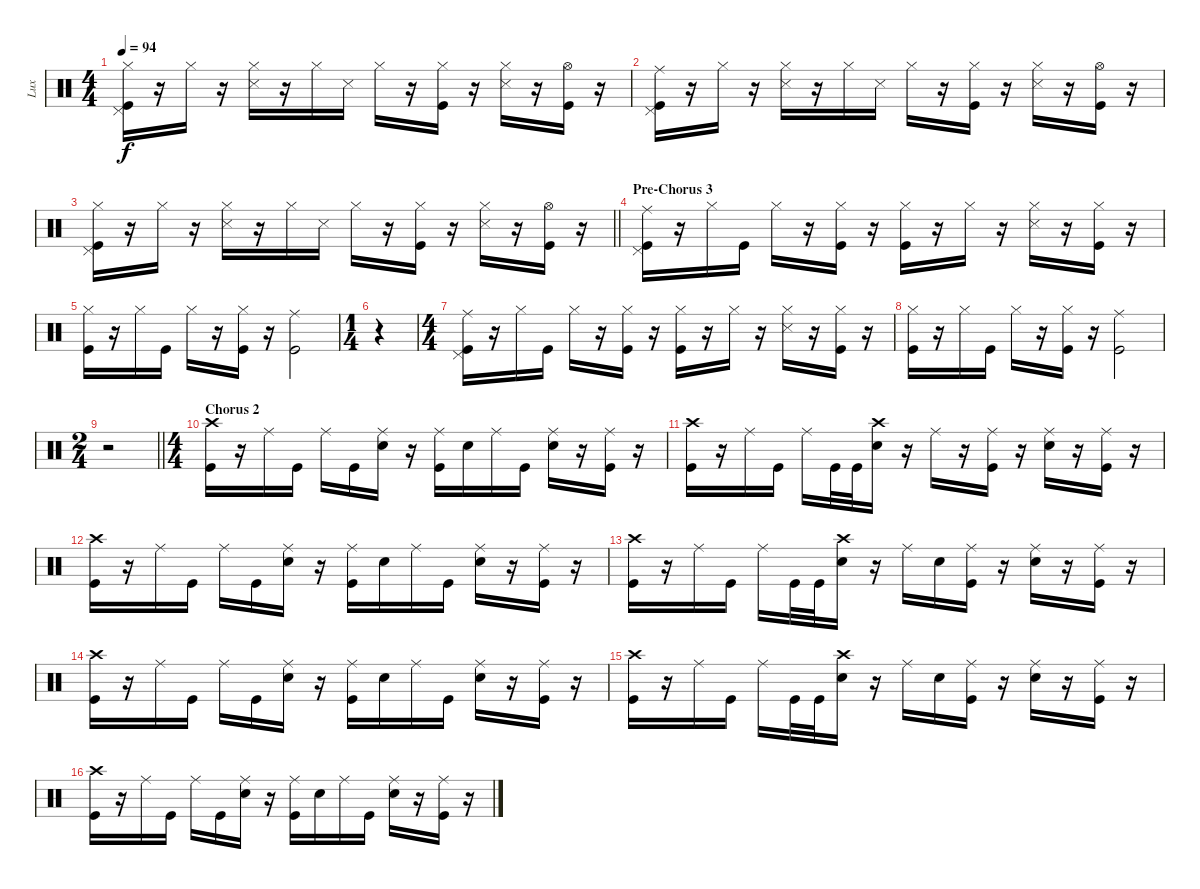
\track ("Lux" "Lux") {instrument percussion}
\staff {score}
\articulation defaults
\ts (4 4)
\tempo 94
\clef neutral
\ks c
("Hi-Hat (closed)" "Pedal Hi-Hat (hit)" "Kick (hit)").16{dy f} r.16 "Hi-Hat (closed)".16 r.16 ("Hi-Hat (closed)" "Snare (side stick) 3").16 r.16 "Hi-Hat (closed)".16 "Snare (side stick) 3".16 "Hi-Hat (closed)".16 r.16 ("Hi-Hat (closed)" "Kick (hit)").16 r.16 ("Hi-Hat (closed)" "Snare (side stick) 3").16 r.16 ("Hi-Hat (open)" "Kick (hit)").16 r.16 |
("Ride (middle)" "Pedal Hi-Hat (hit)" "Kick (hit)").16 r.16 "Hi-Hat (closed)".16 r.16 ("Hi-Hat (closed)" "Snare (side stick) 3").16 r.16 "Hi-Hat (closed)".16 "Snare (side stick) 3".16 "Hi-Hat (closed)".16 r.16 ("Hi-Hat (closed)" "Kick (hit)").16 r.16 ("Hi-Hat (closed)" "Snare (side stick) 3").16 r.16 ("Hi-Hat (open)" "Kick (hit)").16 r.16 |
\barLineRight lightlight
("Hi-Hat (closed)" "Pedal Hi-Hat (hit)" "Kick (hit)").16 r.16 "Hi-Hat (closed)".16 r.16 ("Hi-Hat (closed)" "Snare (side stick) 3").16 r.16 "Hi-Hat (closed)".16 "Snare (side stick) 3".16 "Hi-Hat (closed)".16 r.16 ("Hi-Hat (closed)" "Kick (hit)").16 r.16 ("Hi-Hat (closed)" "Snare (side stick) 3").16 r.16 ("Hi-Hat (open)" "Kick (hit)").16 r.16 |
\section ("" "Pre-Chorus 3")
("Ride (middle)" "Pedal Hi-Hat (hit)" "Kick (hit)").16 r.16 "Hi-Hat (closed)".16 "Kick (hit)".16 "Hi-Hat (closed)".16 r.16 ("Hi-Hat (closed)" "Kick (hit)").16 r.16 ("Hi-Hat (closed)" "Kick (hit)").16 r.16 "Hi-Hat (closed)".16 r.16 ("Hi-Hat (closed)" "Snare (side stick) 3").16 r.16 ("Hi-Hat (closed)" "Kick (hit)").16 r.16 |
("Hi-Hat (closed)" "Kick (hit)").16 r.16 "Hi-Hat (closed)".16 "Kick (hit)".16 "Hi-Hat (closed)".16 r.16 ("Hi-Hat (closed)" "Kick (hit)").16 r.16 ("Ride (middle)" "Kick (hit)").2 |
\ts (1 4)
r.4 |
\ts (4 4)
("Ride (middle)" "Pedal Hi-Hat (hit)" "Kick (hit)").16 r.16 "Hi-Hat (closed)".16 "Kick (hit)".16 "Hi-Hat (closed)".16 r.16 ("Hi-Hat (closed)" "Kick (hit)").16 r.16 ("Hi-Hat (closed)" "Kick (hit)").16 r.16 "Hi-Hat (closed)".16 r.16 ("Hi-Hat (closed)" "Snare (side stick) 3").16 r.16 ("Hi-Hat (closed)" "Kick (hit)").16 r.16 |
("Hi-Hat (closed)" "Kick (hit)").16 r.16 "Hi-Hat (closed)".16 "Kick (hit)".16 "Hi-Hat (closed)".16 r.16 ("Hi-Hat (closed)" "Kick (hit)").16 r.16 ("Ride (middle)" "Kick (hit)").2 |
\ts (2 4)
\barLineRight lightlight
r.2 |
\ts (4 4)
\section ("" "Chorus 2")
("Crash high (hit)" "Kick (hit)").16 r.16 "Ride (middle)".16 "Kick (hit)".16 "Ride (middle)".16 "Kick (hit)".16 ("Ride (middle)" "Snare (hit) 2").16 r.16 ("Ride (middle)" "Kick (hit)").16 "Snare (hit) 2".16 "Ride (middle)".16 "Kick (hit)".16 ("Ride (middle)" "Snare (hit) 2").16 r.16 ("Ride (middle)" "Kick (hit)").16 r.16 |
("Crash high (hit)" "Kick (hit)").16 r.16 "Ride (middle)".16 "Kick (hit)".16 "Ride (middle)".16 "Kick (hit)".32 "Kick (hit)".32 ("Crash high (hit)" "Snare (hit) 2").16 r.16 "Ride (middle)".16 r.16 ("Ride (middle)" "Kick (hit)").16 r.16 ("Ride (middle)" "Snare (hit) 2").16 r.16 ("Ride (middle)" "Kick (hit)").16 r.16 |
("Crash high (hit)" "Kick (hit)").16 r.16 "Ride (middle)".16 "Kick (hit)".16 "Ride (middle)".16 "Kick (hit)".16 ("Ride (middle)" "Snare (hit) 2").16 r.16 ("Ride (middle)" "Kick (hit)").16 "Snare (hit) 2".16 "Ride (middle)".16 "Kick (hit)".16 ("Ride (middle)" "Snare (hit) 2").16 r.16 ("Ride (middle)" "Kick (hit)").16 r.16 |
("Crash high (hit)" "Kick (hit)").16 r.16 "Ride (middle)".16 "Kick (hit)".16 "Ride (middle)".16 "Kick (hit)".32 "Kick (hit)".32 ("Crash high (hit)" "Snare (hit) 2").16 r.16 "Ride (middle)".16 "Snare (hit) 2".16 ("Ride (middle)" "Kick (hit)").16 r.16 ("Ride (middle)" "Snare (hit) 2").16 r.16 ("Ride (middle)" "Kick (hit)").16 r.16 |
("Crash high (hit)" "Kick (hit)").16 r.16 "Ride (middle)".16 "Kick (hit)".16 "Ride (middle)".16 "Kick (hit)".16 ("Ride (middle)" "Snare (hit) 2").16 r.16 ("Ride (middle)" "Kick (hit)").16 "Snare (hit) 2".16 "Ride (middle)".16 "Kick (hit)".16 ("Ride (middle)" "Snare (hit) 2").16 r.16 ("Ride (middle)" "Kick (hit)").16 r.16 |
("Crash high (hit)" "Kick (hit)").16 r.16 "Ride (middle)".16 "Kick (hit)".16 "Ride (middle)".16 "Kick (hit)".32 "Kick (hit)".32 ("Crash high (hit)" "Snare (hit) 2").16 r.16 "Ride (middle)".16 "Snare (hit) 2".16 ("Ride (middle)" "Kick (hit)").16 r.16 ("Ride (middle)" "Snare (hit) 2").16 r.16 ("Ride (middle)" "Kick (hit)").16 r.16 |
("Crash high (hit)" "Kick (hit)").16 r.16 "Ride (middle)".16 "Kick (hit)".16 "Ride (middle)".16 "Kick (hit)".16 ("Ride (middle)" "Snare (hit) 2").16 r.16 ("Ride (middle)" "Kick (hit)").16 "Snare (hit) 2".16 "Ride (middle)".16 "Kick (hit)".16 ("Ride (middle)" "Snare (hit) 2").16 r.16 ("Ride (middle)" "Kick (hit)").16 r.16
